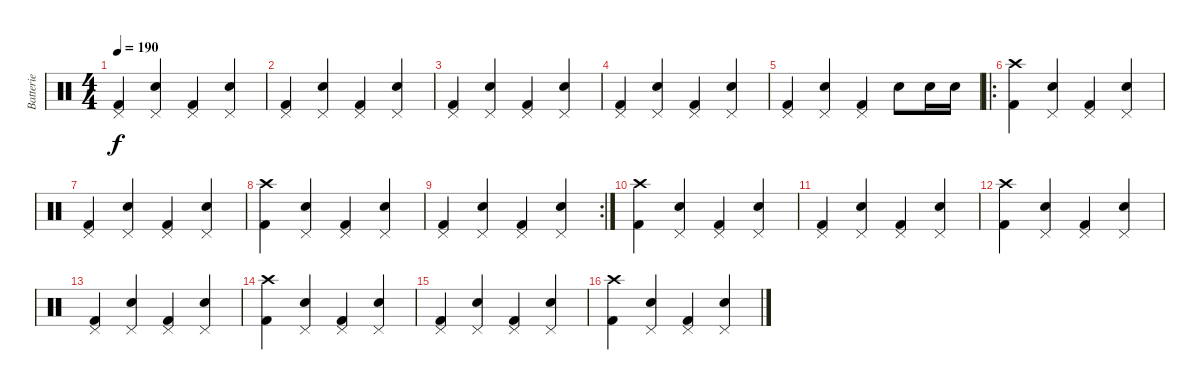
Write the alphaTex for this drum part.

\track ("Batterie" "Batterie") {instrument percussion}
\staff {score}
\articulation defaults
\ts (4 4)
\tempo 190
\clef neutral
\ks c
("Pedal Hi-Hat (hit)" "Kick (hit) 2").4{dy f} ("Pedal Hi-Hat (hit)" "Snare (hit) 2").4 ("Pedal Hi-Hat (hit)" "Kick (hit) 2").4 ("Pedal Hi-Hat (hit)" "Snare (hit) 2").4 |
("Pedal Hi-Hat (hit)" "Kick (hit) 2").4 ("Pedal Hi-Hat (hit)" "Snare (hit) 2").4 ("Pedal Hi-Hat (hit)" "Kick (hit) 2").4 ("Pedal Hi-Hat (hit)" "Snare (hit) 2").4 |
("Pedal Hi-Hat (hit)" "Kick (hit) 2").4 ("Pedal Hi-Hat (hit)" "Snare (hit) 2").4 ("Pedal Hi-Hat (hit)" "Kick (hit) 2").4 ("Pedal Hi-Hat (hit)" "Snare (hit) 2").4 |
("Pedal Hi-Hat (hit)" "Kick (hit) 2").4 ("Pedal Hi-Hat (hit)" "Snare (hit) 2").4 ("Pedal Hi-Hat (hit)" "Kick (hit) 2").4 ("Pedal Hi-Hat (hit)" "Snare (hit) 2").4 |
("Pedal Hi-Hat (hit)" "Kick (hit) 2").4 ("Pedal Hi-Hat (hit)" "Snare (hit) 2").4 ("Pedal Hi-Hat (hit)" "Kick (hit) 2").4 "Snare (hit) 2".8 "Snare (hit) 2".16 "Snare (hit) 2".16 |
\ro
("Crash high (hit)" "Kick (hit) 2").4 ("Pedal Hi-Hat (hit)" "Snare (hit) 2").4 ("Pedal Hi-Hat (hit)" "Kick (hit) 2").4 ("Pedal Hi-Hat (hit)" "Snare (hit) 2").4 |
("Pedal Hi-Hat (hit)" "Kick (hit) 2").4 ("Pedal Hi-Hat (hit)" "Snare (hit) 2").4 ("Pedal Hi-Hat (hit)" "Kick (hit) 2").4 ("Pedal Hi-Hat (hit)" "Snare (hit) 2").4 |
("Crash high (hit)" "Kick (hit) 2").4 ("Pedal Hi-Hat (hit)" "Snare (hit) 2").4 ("Pedal Hi-Hat (hit)" "Kick (hit) 2").4 ("Pedal Hi-Hat (hit)" "Snare (hit) 2").4 |
\rc 2
("Pedal Hi-Hat (hit)" "Kick (hit) 2").4 ("Pedal Hi-Hat (hit)" "Snare (hit) 2").4 ("Pedal Hi-Hat (hit)" "Kick (hit) 2").4 ("Pedal Hi-Hat (hit)" "Snare (hit) 2").4 |
("Crash high (hit)" "Kick (hit) 2").4 ("Pedal Hi-Hat (hit)" "Snare (hit) 2").4 ("Pedal Hi-Hat (hit)" "Kick (hit) 2").4 ("Pedal Hi-Hat (hit)" "Snare (hit) 2").4 |
("Pedal Hi-Hat (hit)" "Kick (hit) 2").4 ("Pedal Hi-Hat (hit)" "Snare (hit) 2").4 ("Pedal Hi-Hat (hit)" "Kick (hit) 2").4 ("Pedal Hi-Hat (hit)" "Snare (hit) 2").4 |
("Crash high (hit)" "Kick (hit) 2").4 ("Pedal Hi-Hat (hit)" "Snare (hit) 2").4 ("Pedal Hi-Hat (hit)" "Kick (hit) 2").4 ("Pedal Hi-Hat (hit)" "Snare (hit) 2").4 |
("Pedal Hi-Hat (hit)" "Kick (hit) 2").4 ("Pedal Hi-Hat (hit)" "Snare (hit) 2").4 ("Pedal Hi-Hat (hit)" "Kick (hit) 2").4 ("Pedal Hi-Hat (hit)" "Snare (hit) 2").4 |
("Crash high (hit)" "Kick (hit) 2").4 ("Pedal Hi-Hat (hit)" "Snare (hit) 2").4 ("Pedal Hi-Hat (hit)" "Kick (hit) 2").4 ("Pedal Hi-Hat (hit)" "Snare (hit) 2").4 |
("Pedal Hi-Hat (hit)" "Kick (hit) 2").4 ("Pedal Hi-Hat (hit)" "Snare (hit) 2").4 ("Pedal Hi-Hat (hit)" "Kick (hit) 2").4 ("Pedal Hi-Hat (hit)" "Snare (hit) 2").4 |
("Crash high (hit)" "Kick (hit) 2").4 ("Pedal Hi-Hat (hit)" "Snare (hit) 2").4 ("Pedal Hi-Hat (hit)" "Kick (hit) 2").4 ("Pedal Hi-Hat (hit)" "Snare (hit) 2").4
